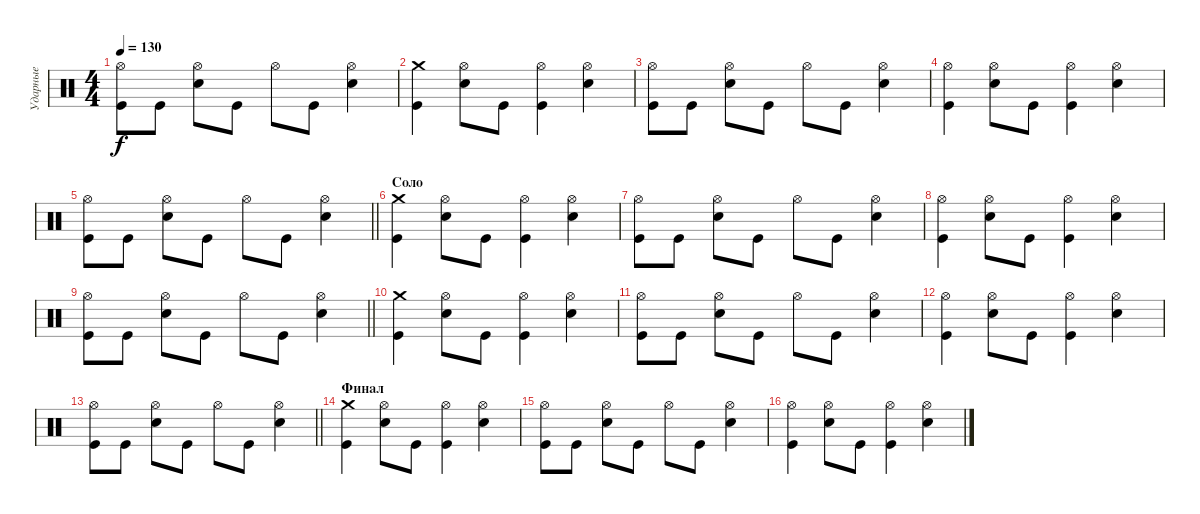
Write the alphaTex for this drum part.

\track ("Ударные" "Ударные") {instrument percussion}
\staff {score}
\articulation defaults
\ts (4 4)
\tempo 130
\clef neutral
\ks c
("Kick (hit)" "Hi-Hat (open)").8{dy f} "Kick (hit)".8 ("Snare (hit) 2" "Hi-Hat (open)").8 "Kick (hit)".8 "Hi-Hat (open)".8 "Kick (hit)".8 ("Snare (hit) 2" "Hi-Hat (open)").4 |
("Kick (hit)" "Crash medium (hit)").4 ("Snare (hit) 2" "Hi-Hat (open)").8 "Kick (hit)".8 ("Kick (hit)" "Hi-Hat (open)").4 ("Snare (hit) 2" "Hi-Hat (open)").4 |
("Kick (hit)" "Hi-Hat (open)").8 "Kick (hit)".8 ("Snare (hit) 2" "Hi-Hat (open)").8 "Kick (hit)".8 "Hi-Hat (open)".8 "Kick (hit)".8 ("Snare (hit) 2" "Hi-Hat (open)").4 |
("Kick (hit)" "Hi-Hat (open)").4 ("Snare (hit) 2" "Hi-Hat (open)").8 "Kick (hit)".8 ("Kick (hit)" "Hi-Hat (open)").4 ("Snare (hit) 2" "Hi-Hat (open)").4 |
\barLineRight lightlight
("Kick (hit)" "Hi-Hat (open)").8 "Kick (hit)".8 ("Snare (hit) 2" "Hi-Hat (open)").8 "Kick (hit)".8 "Hi-Hat (open)".8 "Kick (hit)".8 ("Snare (hit) 2" "Hi-Hat (open)").4 |
\section ("" "Соло")
("Kick (hit)" "Crash medium (hit)").4 ("Snare (hit) 2" "Hi-Hat (open)").8 "Kick (hit)".8 ("Kick (hit)" "Hi-Hat (open)").4 ("Snare (hit) 2" "Hi-Hat (open)").4 |
("Kick (hit)" "Hi-Hat (open)").8 "Kick (hit)".8 ("Snare (hit) 2" "Hi-Hat (open)").8 "Kick (hit)".8 "Hi-Hat (open)".8 "Kick (hit)".8 ("Snare (hit) 2" "Hi-Hat (open)").4 |
("Kick (hit)" "Hi-Hat (open)").4 ("Snare (hit) 2" "Hi-Hat (open)").8 "Kick (hit)".8 ("Kick (hit)" "Hi-Hat (open)").4 ("Snare (hit) 2" "Hi-Hat (open)").4 |
\barLineRight lightlight
("Kick (hit)" "Hi-Hat (open)").8 "Kick (hit)".8 ("Snare (hit) 2" "Hi-Hat (open)").8 "Kick (hit)".8 "Hi-Hat (open)".8 "Kick (hit)".8 ("Snare (hit) 2" "Hi-Hat (open)").4 |
("Kick (hit)" "Crash medium (hit)").4 ("Snare (hit) 2" "Hi-Hat (open)").8 "Kick (hit)".8 ("Kick (hit)" "Hi-Hat (open)").4 ("Snare (hit) 2" "Hi-Hat (open)").4 |
("Kick (hit)" "Hi-Hat (open)").8 "Kick (hit)".8 ("Snare (hit) 2" "Hi-Hat (open)").8 "Kick (hit)".8 "Hi-Hat (open)".8 "Kick (hit)".8 ("Snare (hit) 2" "Hi-Hat (open)").4 |
("Kick (hit)" "Hi-Hat (open)").4 ("Snare (hit) 2" "Hi-Hat (open)").8 "Kick (hit)".8 ("Kick (hit)" "Hi-Hat (open)").4 ("Snare (hit) 2" "Hi-Hat (open)").4 |
\barLineRight lightlight
("Kick (hit)" "Hi-Hat (open)").8 "Kick (hit)".8 ("Snare (hit) 2" "Hi-Hat (open)").8 "Kick (hit)".8 "Hi-Hat (open)".8 "Kick (hit)".8 ("Snare (hit) 2" "Hi-Hat (open)").4 |
\section ("" "Финал")
("Kick (hit)" "Crash medium (hit)").4 ("Snare (hit) 2" "Hi-Hat (open)").8 "Kick (hit)".8 ("Kick (hit)" "Hi-Hat (open)").4 ("Snare (hit) 2" "Hi-Hat (open)").4 |
("Kick (hit)" "Hi-Hat (open)").8 "Kick (hit)".8 ("Snare (hit) 2" "Hi-Hat (open)").8 "Kick (hit)".8 "Hi-Hat (open)".8 "Kick (hit)".8 ("Snare (hit) 2" "Hi-Hat (open)").4 |
("Kick (hit)" "Hi-Hat (open)").4 ("Snare (hit) 2" "Hi-Hat (open)").8 "Kick (hit)".8 ("Kick (hit)" "Hi-Hat (open)").4 ("Snare (hit) 2" "Hi-Hat (open)").4
